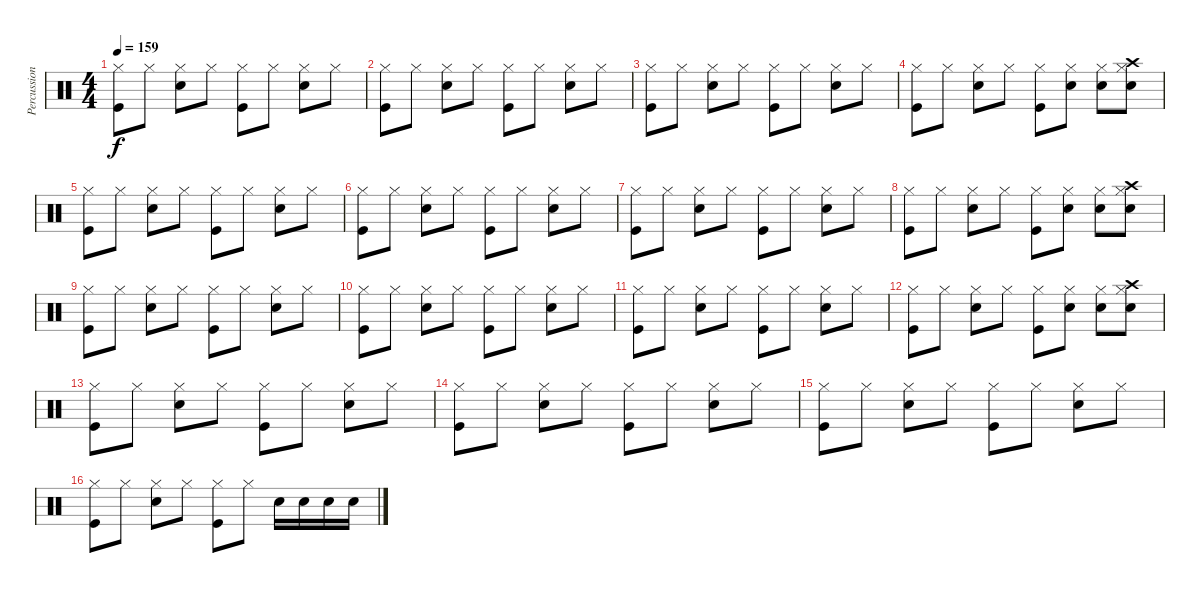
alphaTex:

\track ("Percussion" "Percussion") {instrument percussion}
\staff {score}
\articulation defaults
\ts (4 4)
\tempo 159
\clef neutral
\ks c
("Kick (hit)" "Hi-Hat (closed)").8{dy f} "Hi-Hat (closed)".8 ("Snare (hit) 2" "Hi-Hat (closed)").8 "Hi-Hat (closed)".8 ("Kick (hit)" "Hi-Hat (closed)").8 "Hi-Hat (closed)".8 ("Snare (hit) 2" "Hi-Hat (closed)").8 "Hi-Hat (closed)".8 |
("Kick (hit)" "Hi-Hat (closed)").8 "Hi-Hat (closed)".8 ("Snare (hit) 2" "Hi-Hat (closed)").8 "Hi-Hat (closed)".8 ("Kick (hit)" "Hi-Hat (closed)").8 "Hi-Hat (closed)".8 ("Snare (hit) 2" "Hi-Hat (closed)").8 "Hi-Hat (closed)".8 |
("Kick (hit)" "Hi-Hat (closed)").8 "Hi-Hat (closed)".8 ("Snare (hit) 2" "Hi-Hat (closed)").8 "Hi-Hat (closed)".8 ("Kick (hit)" "Hi-Hat (closed)").8 "Hi-Hat (closed)".8 ("Snare (hit) 2" "Hi-Hat (closed)").8 "Hi-Hat (closed)".8 |
("Kick (hit)" "Hi-Hat (closed)").8 "Hi-Hat (closed)".8 ("Snare (hit) 2" "Hi-Hat (closed)").8 "Hi-Hat (closed)".8 ("Kick (hit)" "Hi-Hat (closed)").8 ("Snare (hit) 2" "Hi-Hat (closed)").8 ("Snare (hit) 2" "Hi-Hat (closed)").8 ("Crash high (hit)" "Snare (hit) 2" "Hi-Hat (closed)").8 |
("Kick (hit)" "Hi-Hat (closed)").8 "Hi-Hat (closed)".8 ("Snare (hit) 2" "Hi-Hat (closed)").8 "Hi-Hat (closed)".8 ("Kick (hit)" "Hi-Hat (closed)").8 "Hi-Hat (closed)".8 ("Snare (hit) 2" "Hi-Hat (closed)").8 "Hi-Hat (closed)".8 |
("Kick (hit)" "Hi-Hat (closed)").8 "Hi-Hat (closed)".8 ("Snare (hit) 2" "Hi-Hat (closed)").8 "Hi-Hat (closed)".8 ("Kick (hit)" "Hi-Hat (closed)").8 "Hi-Hat (closed)".8 ("Snare (hit) 2" "Hi-Hat (closed)").8 "Hi-Hat (closed)".8 |
("Kick (hit)" "Hi-Hat (closed)").8 "Hi-Hat (closed)".8 ("Snare (hit) 2" "Hi-Hat (closed)").8 "Hi-Hat (closed)".8 ("Kick (hit)" "Hi-Hat (closed)").8 "Hi-Hat (closed)".8 ("Snare (hit) 2" "Hi-Hat (closed)").8 "Hi-Hat (closed)".8 |
("Kick (hit)" "Hi-Hat (closed)").8 "Hi-Hat (closed)".8 ("Snare (hit) 2" "Hi-Hat (closed)").8 "Hi-Hat (closed)".8 ("Kick (hit)" "Hi-Hat (closed)").8 ("Snare (hit) 2" "Hi-Hat (closed)").8 ("Snare (hit) 2" "Hi-Hat (closed)").8 ("Crash high (hit)" "Snare (hit) 2" "Hi-Hat (closed)").8 |
("Kick (hit)" "Hi-Hat (closed)").8 "Hi-Hat (closed)".8 ("Snare (hit) 2" "Hi-Hat (closed)").8 "Hi-Hat (closed)".8 ("Kick (hit)" "Hi-Hat (closed)").8 "Hi-Hat (closed)".8 ("Snare (hit) 2" "Hi-Hat (closed)").8 "Hi-Hat (closed)".8 |
("Kick (hit)" "Hi-Hat (closed)").8 "Hi-Hat (closed)".8 ("Snare (hit) 2" "Hi-Hat (closed)").8 "Hi-Hat (closed)".8 ("Kick (hit)" "Hi-Hat (closed)").8 "Hi-Hat (closed)".8 ("Snare (hit) 2" "Hi-Hat (closed)").8 "Hi-Hat (closed)".8 |
("Kick (hit)" "Hi-Hat (closed)").8 "Hi-Hat (closed)".8 ("Snare (hit) 2" "Hi-Hat (closed)").8 "Hi-Hat (closed)".8 ("Kick (hit)" "Hi-Hat (closed)").8 "Hi-Hat (closed)".8 ("Snare (hit) 2" "Hi-Hat (closed)").8 "Hi-Hat (closed)".8 |
("Kick (hit)" "Hi-Hat (closed)").8 "Hi-Hat (closed)".8 ("Snare (hit) 2" "Hi-Hat (closed)").8 "Hi-Hat (closed)".8 ("Kick (hit)" "Hi-Hat (closed)").8 ("Snare (hit) 2" "Hi-Hat (closed)").8 ("Snare (hit) 2" "Hi-Hat (closed)").8 ("Crash high (hit)" "Snare (hit) 2" "Hi-Hat (closed)").8 |
("Kick (hit)" "Hi-Hat (closed)").8 "Hi-Hat (closed)".8 ("Snare (hit) 2" "Hi-Hat (closed)").8 "Hi-Hat (closed)".8 ("Kick (hit)" "Hi-Hat (closed)").8 "Hi-Hat (closed)".8 ("Snare (hit) 2" "Hi-Hat (closed)").8 "Hi-Hat (closed)".8 |
("Kick (hit)" "Hi-Hat (closed)").8 "Hi-Hat (closed)".8 ("Snare (hit) 2" "Hi-Hat (closed)").8 "Hi-Hat (closed)".8 ("Kick (hit)" "Hi-Hat (closed)").8 "Hi-Hat (closed)".8 ("Snare (hit) 2" "Hi-Hat (closed)").8 "Hi-Hat (closed)".8 |
("Kick (hit)" "Hi-Hat (closed)").8 "Hi-Hat (closed)".8 ("Snare (hit) 2" "Hi-Hat (closed)").8 "Hi-Hat (closed)".8 ("Kick (hit)" "Hi-Hat (closed)").8 "Hi-Hat (closed)".8 ("Snare (hit) 2" "Hi-Hat (closed)").8 "Hi-Hat (closed)".8 |
("Kick (hit)" "Hi-Hat (closed)").8 "Hi-Hat (closed)".8 ("Snare (hit) 2" "Hi-Hat (closed)").8 "Hi-Hat (closed)".8 ("Kick (hit)" "Hi-Hat (closed)").8 "Hi-Hat (closed)".8 "Snare (hit) 2".16 "Snare (hit) 2".16 "Snare (hit) 2".16 "Snare (hit) 2".16
